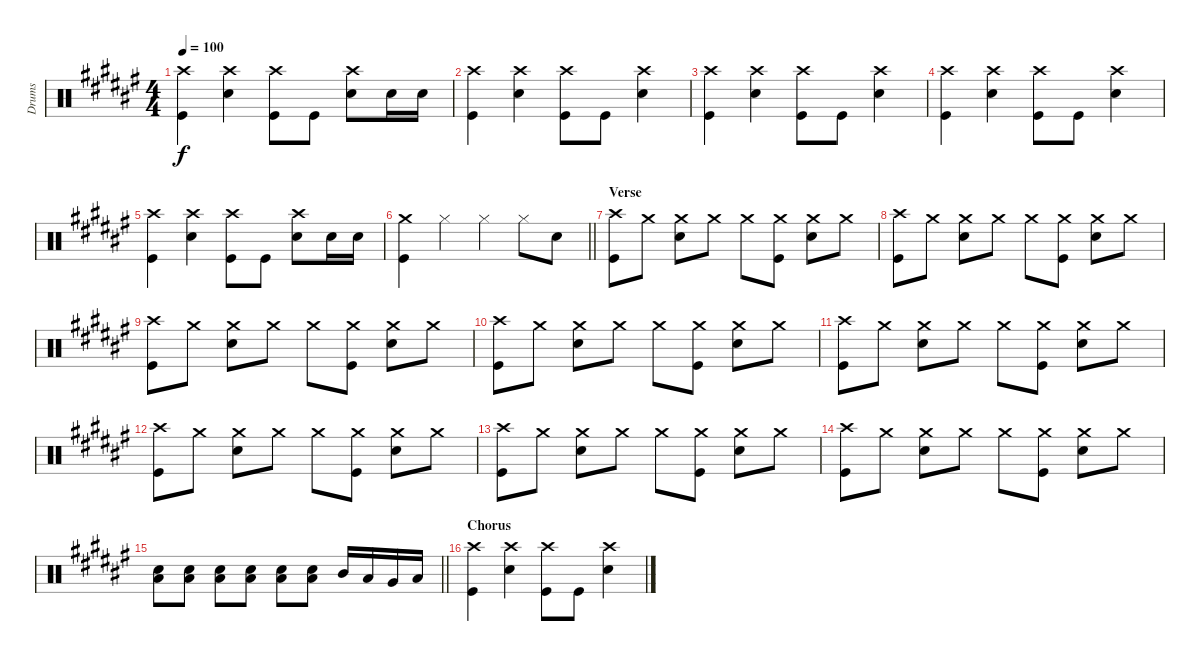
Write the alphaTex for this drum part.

\track ("Drums" "Drums") {instrument percussion}
\staff {score}
\articulation defaults
\ts (4 4)
\tempo 100
\clef neutral
\ks f#
("Crash high (hit)" "Kick (hit)").4{dy f} ("Crash high (hit)" "Snare (hit) 2").4 ("Crash high (hit)" "Kick (hit)").8 "Kick (hit)".8 ("Crash high (hit)" "Snare (hit) 2").8 "Snare (hit) 2".16 "Snare (hit) 2".16 |
("Crash high (hit)" "Kick (hit)").4 ("Crash high (hit)" "Snare (hit) 2").4 ("Crash high (hit)" "Kick (hit)").8 "Kick (hit)".8 ("Crash high (hit)" "Snare (hit) 2").4 |
("Crash high (hit)" "Kick (hit)").4 ("Crash high (hit)" "Snare (hit) 2").4 ("Crash high (hit)" "Kick (hit)").8 "Kick (hit)".8 ("Crash high (hit)" "Snare (hit) 2").4 |
("Crash high (hit)" "Kick (hit)").4 ("Crash high (hit)" "Snare (hit) 2").4 ("Crash high (hit)" "Kick (hit)").8 "Kick (hit)".8 ("Crash high (hit)" "Snare (hit) 2").4 |
("Crash high (hit)" "Kick (hit)").4 ("Crash high (hit)" "Snare (hit) 2").4 ("Crash high (hit)" "Kick (hit)").8 "Kick (hit)".8 ("Crash high (hit)" "Snare (hit) 2").8 "Snare (hit) 2".16 "Snare (hit) 2".16 |
\barLineRight lightlight
("Crash medium (hit)" "Kick (hit)").4 "Hi-Hat (closed)".4 "Hi-Hat (closed)".4 "Hi-Hat (closed)".8 "Snare (hit) 2".8 |
\section ("" "Verse")
("Crash high (hit)" "Kick (hit)").8 "Crash medium (hit)".8 ("Crash medium (hit)" "Snare (hit) 2").8 "Crash medium (hit)".8 "Crash medium (hit)".8 ("Crash medium (hit)" "Kick (hit)").8 ("Crash medium (hit)" "Snare (hit) 2").8 "Crash medium (hit)".8 |
("Crash high (hit)" "Kick (hit)").8 "Crash medium (hit)".8 ("Crash medium (hit)" "Snare (hit) 2").8 "Crash medium (hit)".8 "Crash medium (hit)".8 ("Crash medium (hit)" "Kick (hit)").8 ("Crash medium (hit)" "Snare (hit) 2").8 "Crash medium (hit)".8 |
("Crash high (hit)" "Kick (hit)").8 "Crash medium (hit)".8 ("Crash medium (hit)" "Snare (hit) 2").8 "Crash medium (hit)".8 "Crash medium (hit)".8 ("Crash medium (hit)" "Kick (hit)").8 ("Crash medium (hit)" "Snare (hit) 2").8 "Crash medium (hit)".8 |
("Crash high (hit)" "Kick (hit)").8 "Crash medium (hit)".8 ("Crash medium (hit)" "Snare (hit) 2").8 "Crash medium (hit)".8 "Crash medium (hit)".8 ("Crash medium (hit)" "Kick (hit)").8 ("Crash medium (hit)" "Snare (hit) 2").8 "Crash medium (hit)".8 |
("Crash high (hit)" "Kick (hit)").8 "Crash medium (hit)".8 ("Crash medium (hit)" "Snare (hit) 2").8 "Crash medium (hit)".8 "Crash medium (hit)".8 ("Crash medium (hit)" "Kick (hit)").8 ("Crash medium (hit)" "Snare (hit) 2").8 "Crash medium (hit)".8 |
("Crash high (hit)" "Kick (hit)").8 "Crash medium (hit)".8 ("Crash medium (hit)" "Snare (hit) 2").8 "Crash medium (hit)".8 "Crash medium (hit)".8 ("Crash medium (hit)" "Kick (hit)").8 ("Crash medium (hit)" "Snare (hit) 2").8 "Crash medium (hit)".8 |
("Crash high (hit)" "Kick (hit)").8 "Crash medium (hit)".8 ("Crash medium (hit)" "Snare (hit) 2").8 "Crash medium (hit)".8 "Crash medium (hit)".8 ("Crash medium (hit)" "Kick (hit)").8 ("Crash medium (hit)" "Snare (hit) 2").8 "Crash medium (hit)".8 |
("Crash high (hit)" "Kick (hit)").8 "Crash medium (hit)".8 ("Crash medium (hit)" "Snare (hit) 2").8 "Crash medium (hit)".8 "Crash medium (hit)".8 ("Crash medium (hit)" "Kick (hit)").8 ("Crash medium (hit)" "Snare (hit) 2").8 "Crash medium (hit)".8 |
\barLineRight lightlight
("Low Floor Tom (hit)" "Snare (hit) 2").8 ("Low Floor Tom (hit)" "Snare (hit) 2").8 ("Low Floor Tom (hit)" "Snare (hit) 2").8 ("Low Floor Tom (hit)" "Snare (hit) 2").8 ("Low Floor Tom (hit)" "Snare (hit) 2").8 ("Low Floor Tom (hit)" "Snare (hit) 2").8 "Mid Tom (hit)".16 "Low Tom (hit)".16 "Very Low Tom (hit)".16 "Low Floor Tom (hit)".16 |
\section ("" "Chorus")
("Crash high (hit)" "Kick (hit)").4 ("Crash high (hit)" "Snare (hit) 2").4 ("Crash high (hit)" "Kick (hit)").8 "Kick (hit)".8 ("Crash high (hit)" "Snare (hit) 2").4
